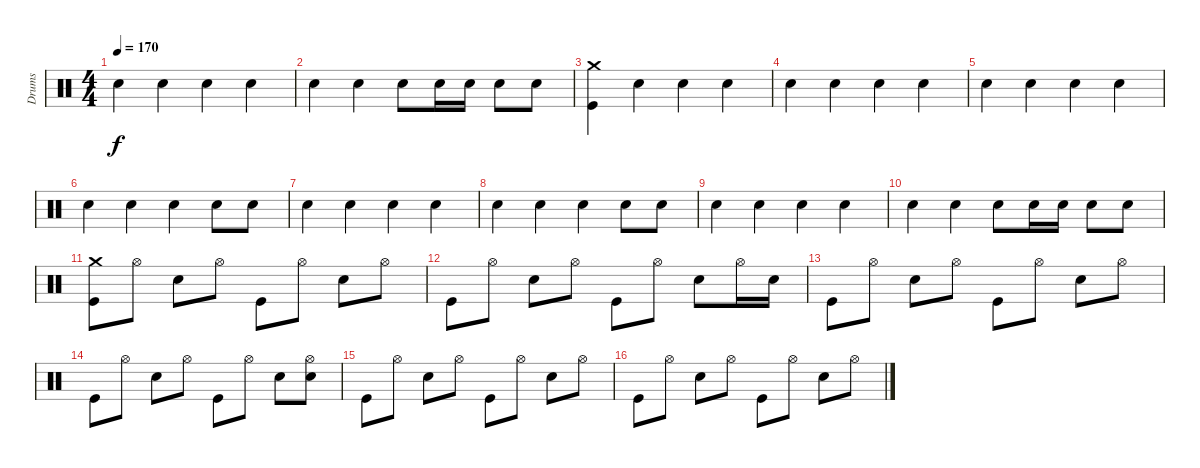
\track ("Drums" "Drums") {instrument percussion}
\staff {score}
\articulation defaults
\ts (4 4)
\tempo 170
\clef neutral
\ks c "Hand Clap (hit)".4{dy f} "Hand Clap (hit)".4 "Hand Clap (hit)".4 "Hand Clap (hit)".4
|
"Hand Clap (hit)".4 "Hand Clap (hit)".4 "Hand Clap (hit)".8 "Hand Clap (hit)".16 "Hand Clap (hit)".16 "Hand Clap (hit)".8 "Hand Clap (hit)".8 |
("Crash medium (hit)" "Kick (hit)").4 "Hand Clap (hit)".4 "Hand Clap (hit)".4 "Hand Clap (hit)".4 |
"Hand Clap (hit)".4 "Hand Clap (hit)".4 "Hand Clap (hit)".4 "Hand Clap (hit)".4 |
"Hand Clap (hit)".4 "Hand Clap (hit)".4 "Hand Clap (hit)".4 "Hand Clap (hit)".4 |
"Hand Clap (hit)".4 "Hand Clap (hit)".4 "Hand Clap (hit)".4 "Hand Clap (hit)".8 "Hand Clap (hit)".8 |
"Hand Clap (hit)".4 "Hand Clap (hit)".4 "Hand Clap (hit)".4 "Hand Clap (hit)".4 |
"Hand Clap (hit)".4 "Hand Clap (hit)".4 "Hand Clap (hit)".4 "Hand Clap (hit)".8 "Hand Clap (hit)".8 |
"Hand Clap (hit)".4 "Hand Clap (hit)".4 "Hand Clap (hit)".4 "Hand Clap (hit)".4 |
"Hand Clap (hit)".4 "Hand Clap (hit)".4 "Hand Clap (hit)".8 "Hand Clap (hit)".16 "Hand Clap (hit)".16 "Hand Clap (hit)".8 "Hand Clap (hit)".8 |
("Crash medium (hit)" "Kick (hit)").8 "Hi-Hat (open)".8 "Electric Snare (hit)".8 "Hi-Hat (open)".8 "Kick (hit)".8 "Hi-Hat (open)".8 "Electric Snare (hit)".8 "Hi-Hat (open)".8 |
"Kick (hit)".8 "Hi-Hat (open)".8 "Electric Snare (hit)".8 "Hi-Hat (open)".8 "Kick (hit)".8 "Hi-Hat (open)".8 "Electric Snare (hit)".8 "Hi-Hat (open)".16 "Electric Snare (hit)".16 |
"Kick (hit)".8 "Hi-Hat (open)".8 "Electric Snare (hit)".8 "Hi-Hat (open)".8 "Kick (hit)".8 "Hi-Hat (open)".8 "Electric Snare (hit)".8 "Hi-Hat (open)".8 |
"Kick (hit)".8 "Hi-Hat (open)".8 "Electric Snare (hit)".8 "Hi-Hat (open)".8 "Kick (hit)".8 "Hi-Hat (open)".8 "Electric Snare (hit)".8 ("Electric Snare (hit)" "Hi-Hat (open)").8 |
"Kick (hit)".8 "Hi-Hat (open)".8 "Electric Snare (hit)".8 "Hi-Hat (open)".8 "Kick (hit)".8 "Hi-Hat (open)".8 "Electric Snare (hit)".8 "Hi-Hat (open)".8 |
"Kick (hit)".8 "Hi-Hat (open)".8 "Electric Snare (hit)".8 "Hi-Hat (open)".8 "Kick (hit)".8 "Hi-Hat (open)".8 "Electric Snare (hit)".8 "Hi-Hat (open)".8
